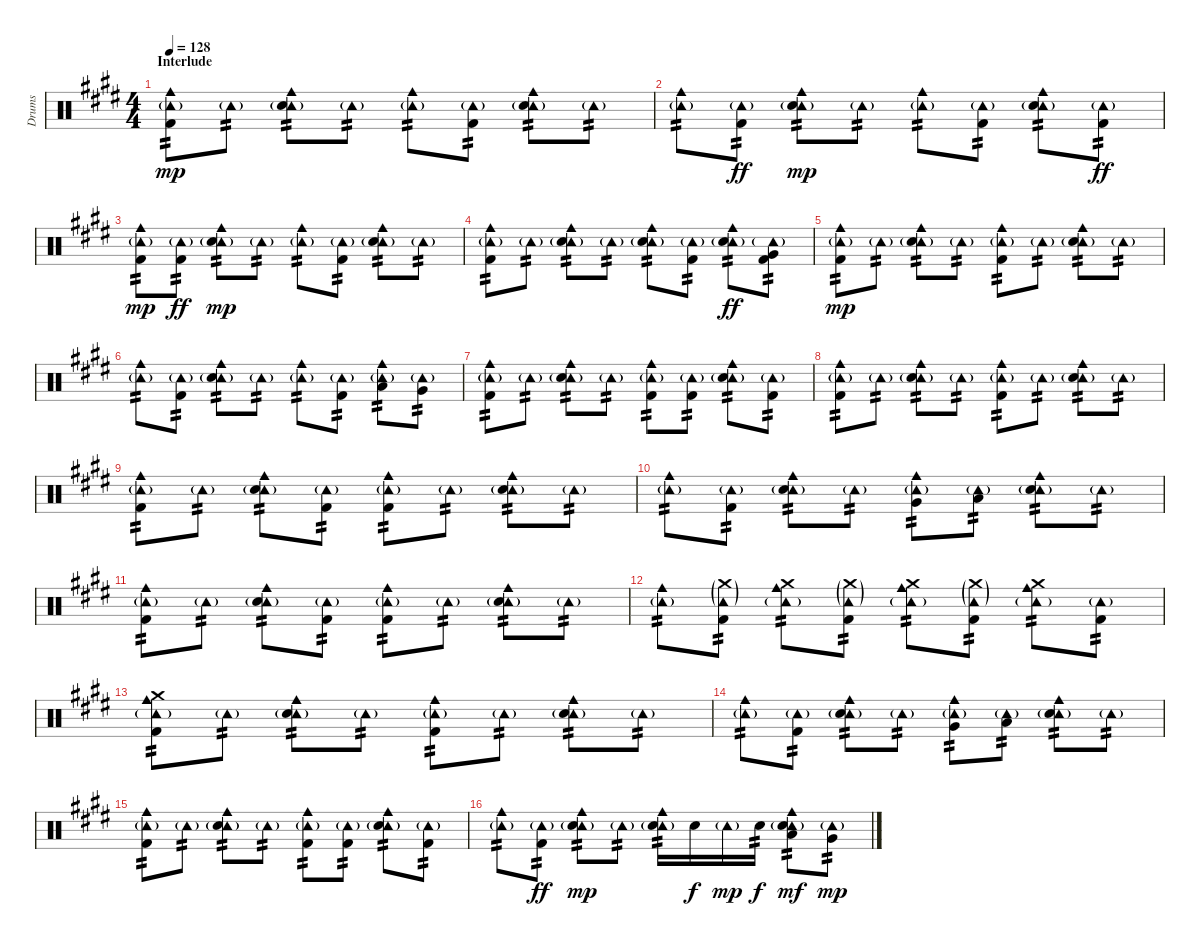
\track ("Drums" "Drums") {instrument percussion}
\staff {score}
\articulation defaults
\ts (4 4)
\section ("" "Interlude")
\tempo 128
\clef neutral
\ks e
("Cowbell medium (hit)" "Tambourine (hit)"{g} "Kick (hit) 2").8{tp 2 dy mp} "Tambourine (hit)"{g}.8{tp 2} ("Cowbell medium (hit)" "Tambourine (hit)"{g} "Snare (hit) 2").8{tp 2} "Tambourine (hit)"{g}.8{tp 2} ("Cowbell medium (hit)" "Tambourine (hit)"{g}).8{tp 2} ("Tambourine (hit)"{g} "Kick (hit) 2").8{tp 2} ("Cowbell medium (hit)" "Tambourine (hit)"{g} "Snare (hit) 2").8{tp 2} "Tambourine (hit)"{g}.8{tp 2} |
\ks c#minor
("Cowbell medium (hit)" "Tambourine (hit)"{g}).8{tp 2} ("Tambourine (hit)"{g} "Kick (hit) 2").8{tp 2 dy ff} ("Cowbell medium (hit)" "Tambourine (hit)"{g} "Snare (hit) 2").8{tp 2 dy mp} "Tambourine (hit)"{g}.8{tp 2} ("Cowbell medium (hit)" "Tambourine (hit)"{g}).8{tp 2} ("Tambourine (hit)"{g} "Kick (hit) 2").8{tp 2} ("Cowbell medium (hit)" "Tambourine (hit)"{g} "Snare (hit) 2").8{tp 2} ("Tambourine (hit)"{g} "Kick (hit) 2").8{tp 2 dy ff} |
("Cowbell medium (hit)" "Tambourine (hit)"{g} "Kick (hit) 2").8{tp 2 dy mp} ("Tambourine (hit)"{g} "Kick (hit) 2").8{tp 2 dy ff} ("Cowbell medium (hit)" "Tambourine (hit)"{g} "Snare (hit) 2").8{tp 2 dy mp} "Tambourine (hit)"{g}.8{tp 2} ("Cowbell medium (hit)" "Tambourine (hit)"{g}).8{tp 2} ("Tambourine (hit)"{g} "Kick (hit) 2").8{tp 2} ("Cowbell medium (hit)" "Tambourine (hit)"{g} "Snare (hit) 2").8{tp 2} "Tambourine (hit)"{g}.8{tp 2} |
("Cowbell medium (hit)" "Tambourine (hit)"{g} "Kick (hit) 2").8{tp 2} "Tambourine (hit)"{g}.8{tp 2} ("Cowbell medium (hit)" "Tambourine (hit)"{g} "Snare (hit) 2").8{tp 2} "Tambourine (hit)"{g}.8{tp 2} ("Cowbell medium (hit)" "Tambourine (hit)"{g} "Snare (hit) 2").8{tp 2} ("Tambourine (hit)"{g} "Kick (hit) 2").8{tp 2} ("Cowbell medium (hit)" "Tambourine (hit)"{g} "Snare (hit) 2").8{tp 2 dy ff} ("Tambourine (hit)"{g} "Very Low Tom (hit)" "Kick (hit) 2").8{tp 2} |
\ks e
("Cowbell medium (hit)" "Tambourine (hit)"{g} "Kick (hit) 2").8{tp 2 dy mp} "Tambourine (hit)"{g}.8{tp 2} ("Cowbell medium (hit)" "Tambourine (hit)"{g} "Snare (hit) 2").8{tp 2} "Tambourine (hit)"{g}.8{tp 2} ("Cowbell medium (hit)" "Tambourine (hit)"{g} "Kick (hit) 2").8{tp 2} "Tambourine (hit)"{g}.8{tp 2} ("Cowbell medium (hit)" "Tambourine (hit)"{g} "Snare (hit) 2").8{tp 2} "Tambourine (hit)"{g}.8{tp 2} |
\ks c#minor
("Cowbell medium (hit)" "Tambourine (hit)"{g}).8{tp 2} ("Tambourine (hit)"{g} "Kick (hit) 2").8{tp 2} ("Cowbell medium (hit)" "Tambourine (hit)"{g} "Snare (hit) 2").8{tp 2} "Tambourine (hit)"{g}.8{tp 2} ("Cowbell medium (hit)" "Tambourine (hit)"{g}).8{tp 2} ("Tambourine (hit)"{g} "Kick (hit) 2").8{tp 2} ("Cowbell medium (hit)" "Tambourine (hit)"{g} "Low Tom (hit)").8{tp 2} ("Tambourine (hit)"{g} "Very Low Tom (hit)").8{tp 2} |
("Cowbell medium (hit)" "Tambourine (hit)"{g} "Kick (hit) 2").8{tp 2} "Tambourine (hit)"{g}.8{tp 2} ("Cowbell medium (hit)" "Tambourine (hit)"{g} "Snare (hit) 2").8{tp 2} "Tambourine (hit)"{g}.8{tp 2} ("Cowbell medium (hit)" "Tambourine (hit)"{g} "Kick (hit) 2").8{tp 2} ("Tambourine (hit)"{g} "Kick (hit) 2").8{tp 2} ("Cowbell medium (hit)" "Tambourine (hit)"{g} "Snare (hit) 2").8{tp 2} ("Tambourine (hit)"{g} "Kick (hit) 2").8{tp 2} |
("Cowbell medium (hit)" "Tambourine (hit)"{g} "Kick (hit) 2").8{tp 2} "Tambourine (hit)"{g}.8{tp 2} ("Cowbell medium (hit)" "Tambourine (hit)"{g} "Snare (hit) 2").8{tp 2} "Tambourine (hit)"{g}.8{tp 2} ("Cowbell medium (hit)" "Tambourine (hit)"{g} "Kick (hit) 2").8{tp 2} "Tambourine (hit)"{g}.8{tp 2} ("Cowbell medium (hit)" "Tambourine (hit)"{g} "Snare (hit) 2").8{tp 2} "Tambourine (hit)"{g}.8{tp 2} |
\ks e
("Cowbell medium (hit)" "Tambourine (hit)"{g} "Kick (hit) 2").8{tp 2} "Tambourine (hit)"{g}.8{tp 2} ("Cowbell medium (hit)" "Tambourine (hit)"{g} "Snare (hit) 2").8{tp 2} ("Tambourine (hit)"{g} "Kick (hit) 2").8{tp 2} ("Cowbell medium (hit)" "Tambourine (hit)"{g} "Kick (hit) 2").8{tp 2} "Tambourine (hit)"{g}.8{tp 2} ("Cowbell medium (hit)" "Tambourine (hit)"{g} "Snare (hit) 2").8{tp 2} "Tambourine (hit)"{g}.8{tp 2} |
\ks c#minor
("Cowbell medium (hit)" "Tambourine (hit)"{g}).8{tp 2} ("Tambourine (hit)"{g} "Kick (hit) 2").8{tp 2} ("Cowbell medium (hit)" "Tambourine (hit)"{g} "Snare (hit) 2").8{tp 2} "Tambourine (hit)"{g}.8{tp 2} ("Cowbell medium (hit)" "Tambourine (hit)"{g} "Very Low Tom (hit)").8{tp 2} ("Tambourine (hit)"{g} "Low Floor Tom (hit)").8{tp 2} ("Cowbell medium (hit)" "Tambourine (hit)"{g} "Snare (hit) 2").8{tp 2} "Tambourine (hit)"{g}.8{tp 2} |
("Cowbell medium (hit)" "Tambourine (hit)"{g} "Kick (hit) 2").8{tp 2} "Tambourine (hit)"{g}.8{tp 2} ("Cowbell medium (hit)" "Tambourine (hit)"{g} "Snare (hit) 2").8{tp 2} ("Tambourine (hit)"{g} "Kick (hit) 2").8{tp 2} ("Cowbell medium (hit)" "Tambourine (hit)"{g} "Kick (hit) 2").8{tp 2} "Tambourine (hit)"{g}.8{tp 2} ("Cowbell medium (hit)" "Tambourine (hit)"{g} "Snare (hit) 2").8{tp 2} "Tambourine (hit)"{g}.8{tp 2} |
("Cowbell medium (hit)" "Tambourine (hit)"{g}).8{tp 2} ("Crash medium (hit)"{g} "Tambourine (hit)"{g} "Kick (hit) 2").8{tp 2} ("Cowbell medium (hit)" "Crash medium (hit)" "Tambourine (hit)"{g}).8{tp 2} ("Crash medium (hit)"{g} "Tambourine (hit)"{g} "Kick (hit) 2").8{tp 2} ("Cowbell medium (hit)" "Crash medium (hit)" "Tambourine (hit)"{g}).8{tp 2} ("Crash medium (hit)"{g} "Tambourine (hit)"{g} "Kick (hit) 2").8{tp 2} ("Cowbell medium (hit)" "Crash medium (hit)" "Tambourine (hit)"{g}).8{tp 2} ("Tambourine (hit)"{g} "Kick (hit) 2").8{tp 2} |
\ks e
("Crash medium (hit)" "Cowbell medium (hit)" "Tambourine (hit)"{g} "Kick (hit) 2").8{tp 2} "Tambourine (hit)"{g}.8{tp 2} ("Cowbell medium (hit)" "Tambourine (hit)"{g} "Snare (hit) 2").8{tp 2} "Tambourine (hit)"{g}.8{tp 2} ("Cowbell medium (hit)" "Tambourine (hit)"{g} "Kick (hit) 2").8{tp 2} "Tambourine (hit)"{g}.8{tp 2} ("Cowbell medium (hit)" "Tambourine (hit)"{g} "Snare (hit) 2").8{tp 2} "Tambourine (hit)"{g}.8{tp 2} |
\ks c#minor
("Cowbell medium (hit)" "Tambourine (hit)"{g}).8{tp 2} ("Tambourine (hit)"{g} "Kick (hit) 2").8{tp 2} ("Cowbell medium (hit)" "Tambourine (hit)"{g} "Snare (hit) 2").8{tp 2} "Tambourine (hit)"{g}.8{tp 2} ("Cowbell medium (hit)" "Tambourine (hit)"{g} "Very Low Tom (hit)").8{tp 2} ("Tambourine (hit)"{g} "Low Floor Tom (hit)").8{tp 2} ("Cowbell medium (hit)" "Tambourine (hit)"{g} "Snare (hit) 2").8{tp 2} "Tambourine (hit)"{g}.8{tp 2} |
("Cowbell medium (hit)" "Tambourine (hit)"{g} "Kick (hit) 2").8{tp 2} "Tambourine (hit)"{g}.8{tp 2} ("Cowbell medium (hit)" "Tambourine (hit)"{g} "Snare (hit) 2").8{tp 2} "Tambourine (hit)"{g}.8{tp 2} ("Cowbell medium (hit)" "Tambourine (hit)"{g} "Kick (hit) 2").8{tp 2} ("Tambourine (hit)"{g} "Kick (hit) 2").8{tp 2} ("Cowbell medium (hit)" "Tambourine (hit)"{g} "Snare (hit) 2").8{tp 2} ("Tambourine (hit)"{g} "Kick (hit) 2").8{tp 2} |
\ks e
("Cowbell medium (hit)" "Tambourine (hit)"{g}).8{tp 2} ("Tambourine (hit)"{g} "Kick (hit) 2").8{tp 2 dy ff} ("Cowbell medium (hit)" "Tambourine (hit)"{g} "Snare (hit) 2").8{tp 2 dy mp} "Tambourine (hit)"{g}.8{tp 2} ("Cowbell medium (hit)" "Tambourine (hit)"{g} "Snare (hit) 2").16{tp 2} "Snare (hit) 2".16{dy f} "Tambourine (hit)"{g}.16{dy mp} "Snare (hit) 2".16{tp 2 dy f} ("Cowbell medium (hit)" "Tambourine (hit)"{g} "Low Tom (hit)" "Snare (hit) 2").8{tp 2 dy mf} ("Tambourine (hit)"{g} "Very Low Tom (hit)").8{tp 2 dy mp}
